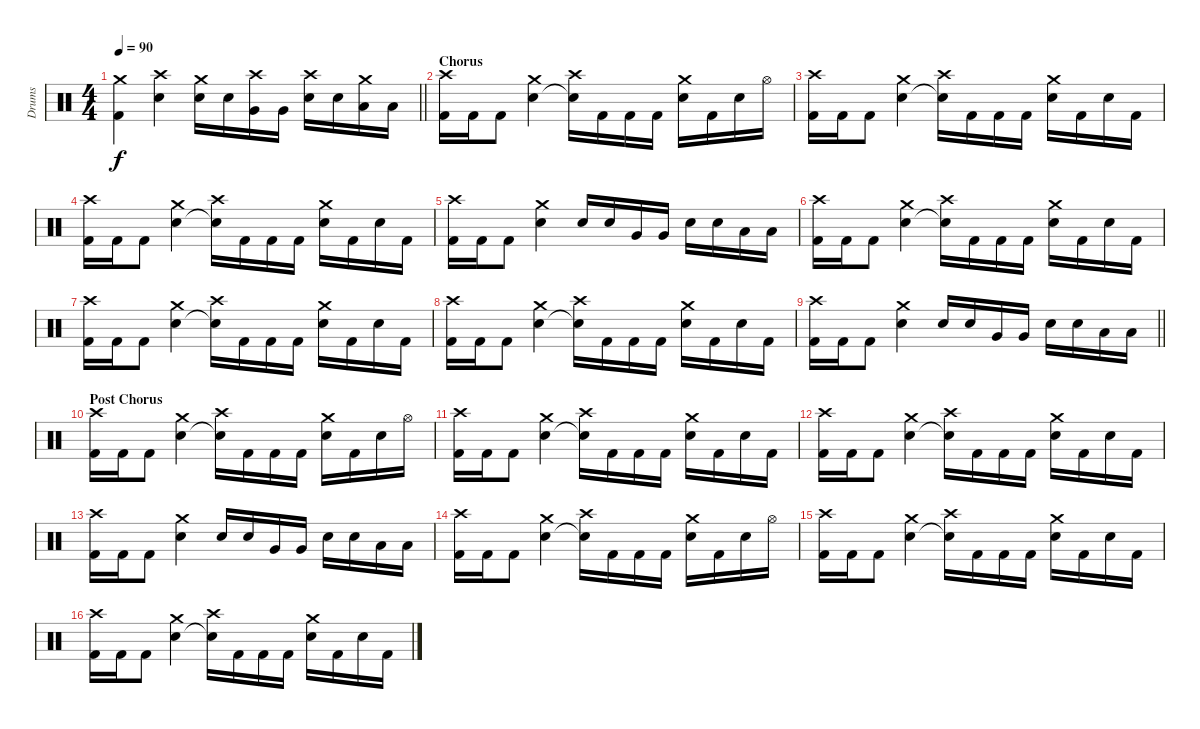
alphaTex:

\track ("Drums" "Drums") {instrument percussion}
\staff {score}
\articulation defaults
\ts (4 4)
\tempo 90
\clef neutral
\barLineRight lightlight
\ks c
("Kick (hit) 2" "Crash medium (hit)").4{dy f} ("Snare (hit) 2" "Crash high (hit)").4 ("Snare (hit) 2" "Crash medium (hit)").16 "Snare (hit) 2".16 ("Very Low Tom (hit)" "Crash high (hit)").16 "Very Low Tom (hit)".16 ("Snare (hit) 2" "Crash high (hit)").16 "Snare (hit) 2".16 ("Low Floor Tom (hit)" "Crash medium (hit)").16 "Low Floor Tom (hit)".16 |
\section ("" "Chorus")
("Kick (hit) 2" "Crash high (hit)").16 "Kick (hit) 2".16 "Kick (hit) 2".8 ("Snare (hit) 2" "Crash medium (hit)").4 ("Snare (hit)"{t} "Crash high (hit)").16 "Kick (hit) 2".16 "Kick (hit) 2".16 "Kick (hit) 2".16 ("Snare (hit) 2" "Crash medium (hit)").16 "Kick (hit) 2".16 "Snare (hit) 2".16 "Hi-Hat (open)".16 |
("Kick (hit) 2" "Crash high (hit)").16 "Kick (hit) 2".16 "Kick (hit) 2".8 ("Snare (hit) 2" "Crash medium (hit)").4 ("Snare (hit)"{t} "Crash high (hit)").16 "Kick (hit) 2".16 "Kick (hit) 2".16 "Kick (hit) 2".16 ("Snare (hit) 2" "Crash medium (hit)").16 "Kick (hit) 2".16 "Snare (hit) 2".16 "Kick (hit) 2".16 |
("Kick (hit) 2" "Crash high (hit)").16 "Kick (hit) 2".16 "Kick (hit) 2".8 ("Snare (hit) 2" "Crash medium (hit)").4 ("Snare (hit)"{t} "Crash high (hit)").16 "Kick (hit) 2".16 "Kick (hit) 2".16 "Kick (hit) 2".16 ("Snare (hit) 2" "Crash medium (hit)").16 "Kick (hit) 2".16 "Snare (hit) 2".16 "Kick (hit) 2".16 |
("Kick (hit) 2" "Crash high (hit)").16 "Kick (hit) 2".16 "Kick (hit) 2".8 ("Snare (hit) 2" "Crash medium (hit)").4 "Snare (hit) 2".16 "Snare (hit) 2".16 "Very Low Tom (hit)".16 "Very Low Tom (hit)".16 "Snare (hit) 2".16 "Snare (hit) 2".16 "Low Floor Tom (hit)".16 "Low Floor Tom (hit)".16 |
("Kick (hit) 2" "Crash high (hit)").16 "Kick (hit) 2".16 "Kick (hit) 2".8 ("Snare (hit) 2" "Crash medium (hit)").4 ("Snare (hit)"{t} "Crash high (hit)").16 "Kick (hit) 2".16 "Kick (hit) 2".16 "Kick (hit) 2".16 ("Snare (hit) 2" "Crash medium (hit)").16 "Kick (hit) 2".16 "Snare (hit) 2".16 "Kick (hit) 2".16 |
("Kick (hit) 2" "Crash high (hit)").16 "Kick (hit) 2".16 "Kick (hit) 2".8 ("Snare (hit) 2" "Crash medium (hit)").4 ("Snare (hit)"{t} "Crash high (hit)").16 "Kick (hit) 2".16 "Kick (hit) 2".16 "Kick (hit) 2".16 ("Snare (hit) 2" "Crash medium (hit)").16 "Kick (hit) 2".16 "Snare (hit) 2".16 "Kick (hit) 2".16 |
("Kick (hit) 2" "Crash high (hit)").16 "Kick (hit) 2".16 "Kick (hit) 2".8 ("Snare (hit) 2" "Crash medium (hit)").4 ("Snare (hit)"{t} "Crash high (hit)").16 "Kick (hit) 2".16 "Kick (hit) 2".16 "Kick (hit) 2".16 ("Snare (hit) 2" "Crash medium (hit)").16 "Kick (hit) 2".16 "Snare (hit) 2".16 "Kick (hit) 2".16 |
\barLineRight lightlight
("Kick (hit) 2" "Crash high (hit)").16 "Kick (hit) 2".16 "Kick (hit) 2".8 ("Snare (hit) 2" "Crash medium (hit)").4 "Snare (hit) 2".16 "Snare (hit) 2".16 "Very Low Tom (hit)".16 "Very Low Tom (hit)".16 "Snare (hit) 2".16 "Snare (hit) 2".16 "Low Floor Tom (hit)".16 "Low Floor Tom (hit)".16 |
\section ("" "Post Chorus")
("Kick (hit) 2" "Crash high (hit)").16 "Kick (hit) 2".16 "Kick (hit) 2".8 ("Snare (hit) 2" "Crash medium (hit)").4 ("Snare (hit)"{t} "Crash high (hit)").16 "Kick (hit) 2".16 "Kick (hit) 2".16 "Kick (hit) 2".16 ("Snare (hit) 2" "Crash medium (hit)").16 "Kick (hit) 2".16 "Snare (hit) 2".16 "Hi-Hat (open)".16 |
("Kick (hit) 2" "Crash high (hit)").16 "Kick (hit) 2".16 "Kick (hit) 2".8 ("Snare (hit) 2" "Crash medium (hit)").4 ("Snare (hit)"{t} "Crash high (hit)").16 "Kick (hit) 2".16 "Kick (hit) 2".16 "Kick (hit) 2".16 ("Snare (hit) 2" "Crash medium (hit)").16 "Kick (hit) 2".16 "Snare (hit) 2".16 "Kick (hit) 2".16 |
("Kick (hit) 2" "Crash high (hit)").16 "Kick (hit) 2".16 "Kick (hit) 2".8 ("Snare (hit) 2" "Crash medium (hit)").4 ("Snare (hit)"{t} "Crash high (hit)").16 "Kick (hit) 2".16 "Kick (hit) 2".16 "Kick (hit) 2".16 ("Snare (hit) 2" "Crash medium (hit)").16 "Kick (hit) 2".16 "Snare (hit) 2".16 "Kick (hit) 2".16 |
("Kick (hit) 2" "Crash high (hit)").16 "Kick (hit) 2".16 "Kick (hit) 2".8 ("Snare (hit) 2" "Crash medium (hit)").4 "Snare (hit) 2".16 "Snare (hit) 2".16 "Very Low Tom (hit)".16 "Very Low Tom (hit)".16 "Snare (hit) 2".16 "Snare (hit) 2".16 "Low Floor Tom (hit)".16 "Low Floor Tom (hit)".16 |
("Kick (hit) 2" "Crash high (hit)").16 "Kick (hit) 2".16 "Kick (hit) 2".8 ("Snare (hit) 2" "Crash medium (hit)").4 ("Snare (hit)"{t} "Crash high (hit)").16 "Kick (hit) 2".16 "Kick (hit) 2".16 "Kick (hit) 2".16 ("Snare (hit) 2" "Crash medium (hit)").16 "Kick (hit) 2".16 "Snare (hit) 2".16 "Hi-Hat (open)".16 |
("Kick (hit) 2" "Crash high (hit)").16 "Kick (hit) 2".16 "Kick (hit) 2".8 ("Snare (hit) 2" "Crash medium (hit)").4 ("Snare (hit)"{t} "Crash high (hit)").16 "Kick (hit) 2".16 "Kick (hit) 2".16 "Kick (hit) 2".16 ("Snare (hit) 2" "Crash medium (hit)").16 "Kick (hit) 2".16 "Snare (hit) 2".16 "Kick (hit) 2".16 |
("Kick (hit) 2" "Crash high (hit)").16 "Kick (hit) 2".16 "Kick (hit) 2".8 ("Snare (hit) 2" "Crash medium (hit)").4 ("Snare (hit)"{t} "Crash high (hit)").16 "Kick (hit) 2".16 "Kick (hit) 2".16 "Kick (hit) 2".16 ("Snare (hit) 2" "Crash medium (hit)").16 "Kick (hit) 2".16 "Snare (hit) 2".16 "Kick (hit) 2".16
